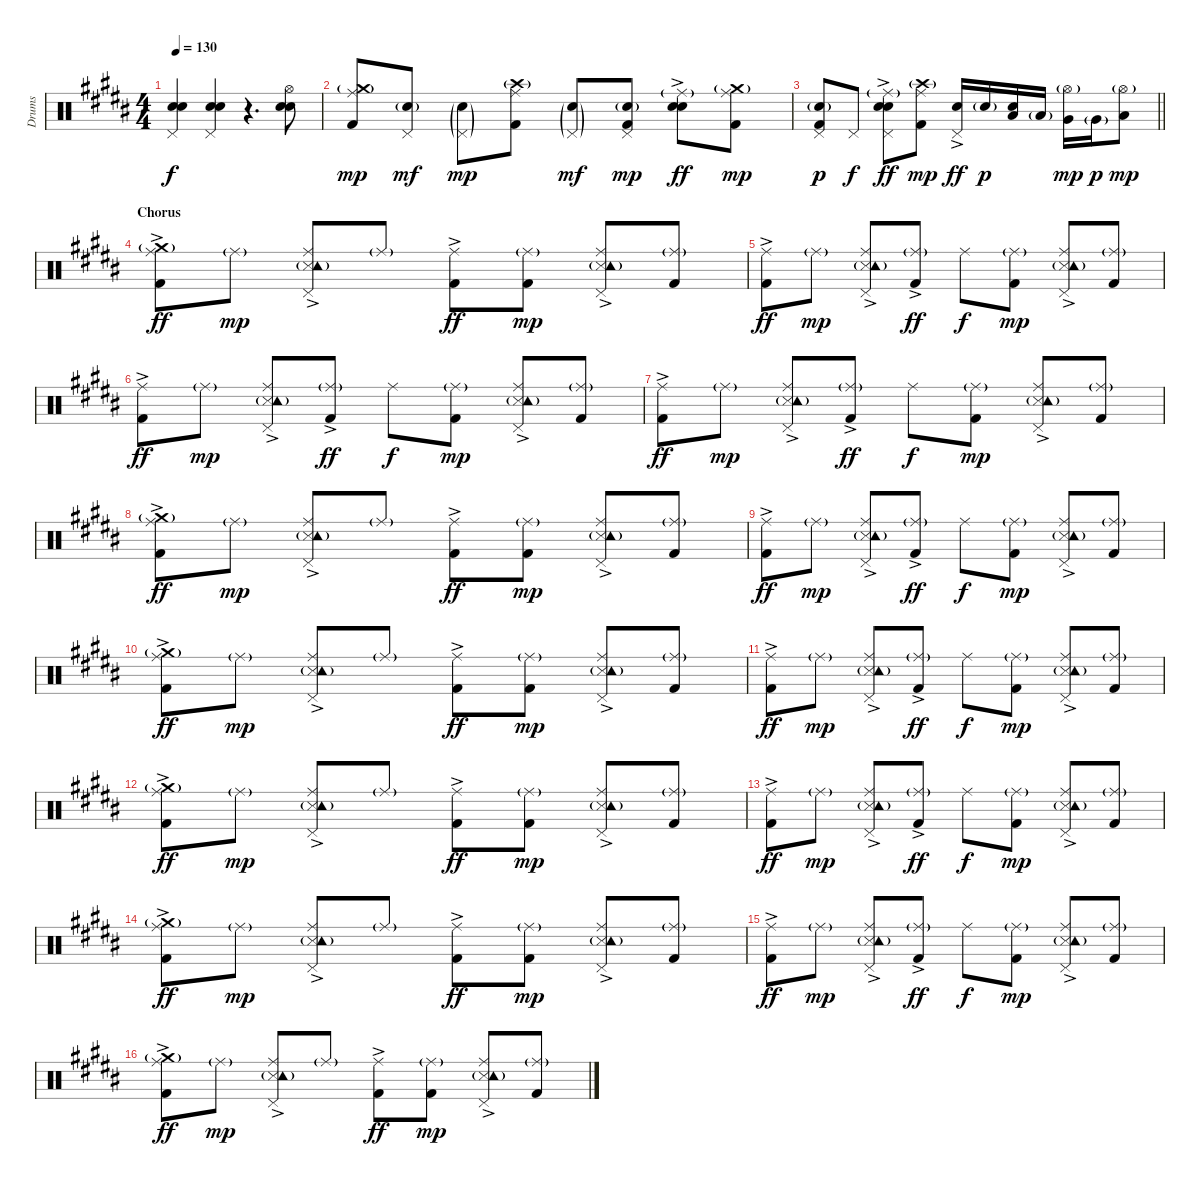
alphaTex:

\track ("Drums" "Drums") {instrument percussion}
\staff {score}
\articulation defaults
\ts (4 4)
\tempo 130
\clef neutral
\ks b
("Pedal Hi-Hat (hit)" "Electric Snare (hit)" "Snare (hit) 2").4{dy f} ("Pedal Hi-Hat (hit)" "Electric Snare (hit)" "Snare (hit) 2").4 r.4{d} ("Hi-Hat (open)" "Electric Snare (hit)" "Snare (hit) 2").8 |
("Ride (middle)" "Crash medium (hit)"{g} "Kick (hit) 2").8{dy mp} ("Pedal Hi-Hat (hit)" "Electric Snare (hit)"{g}).8{dy mf} ("Pedal Hi-Hat (hit)"{g} "Electric Snare (hit)"{g}).8{dy mp} ("Ride (middle)" "Crash high (hit)"{g} "Kick (hit) 2").8 ("Pedal Hi-Hat (hit)"{g} "Electric Snare (hit)"{g}).8{dy mf} ("Pedal Hi-Hat (hit)" "Electric Snare (hit)"{g} "Kick (hit) 2").8{dy mp} ("Ride (middle)"{g} "Electric Snare (hit)" "Snare (hit) 2"{ac}).8{dy ff} ("Ride (middle)" "Crash medium (hit)"{g} "Kick (hit) 2").8{dy mp} |
\barLineRight lightlight
("Pedal Hi-Hat (hit)" "Electric Snare (hit)"{g} "Kick (hit) 2").8{dy p} "Pedal Hi-Hat (hit)".8{dy f} ("Ride (middle)"{g} "Pedal Hi-Hat (hit)" "Electric Snare (hit)" "Snare (hit) 2"{ac}).8{dy ff} ("Ride (middle)" "Crash high (hit)"{g} "Kick (hit) 2").8{dy mp} ("Pedal Hi-Hat (hit)" "Electric Snare (hit)"{ac}).16{dy ff} "Electric Snare (hit)"{g}.16{dy p} ("Low Tom (hit)" "Electric Snare (hit)").16 "Low Tom (hit)"{g}.16 ("Hi-Hat (open)"{g} "Very Low Tom (hit)").16{dy mp} "Very Low Tom (hit)"{g}.16{dy p} ("Hi-Hat (open)"{g} "Low Floor Tom (hit)").8{dy mp} |
\section ("" "Chorus")
("Ride (middle)" "Crash medium (hit)"{g} "Kick (hit) 2"{ac}).8{dy ff} "Ride (middle)"{g}.8{dy mp} ("Ride (middle)" "Pedal Hi-Hat (hit)" "Snare (side stick) 3"{ac} "Tambourine (hit)"{g}).8 "Ride (middle)"{g}.8 ("Ride (middle)" "Kick (hit) 2"{ac}).8{dy ff} ("Ride (middle)"{g} "Kick (hit) 2").8{dy mp} ("Ride (middle)" "Pedal Hi-Hat (hit)" "Snare (side stick) 3"{ac} "Tambourine (hit)"{g}).8 ("Ride (middle)"{g} "Kick (hit) 2").8 |
("Ride (middle)" "Kick (hit) 2"{ac}).8{dy ff} "Ride (middle)"{g}.8{dy mp} ("Ride (middle)" "Pedal Hi-Hat (hit)" "Snare (side stick) 3"{ac} "Tambourine (hit)"{g}).8 ("Ride (middle)"{g} "Kick (hit) 2"{ac}).8{dy ff} "Ride (middle)".8{dy f} ("Ride (middle)"{g} "Kick (hit) 2").8{dy mp} ("Ride (middle)" "Pedal Hi-Hat (hit)" "Snare (side stick) 3"{ac} "Tambourine (hit)"{g}).8 ("Ride (middle)"{g} "Kick (hit) 2").8 |
("Ride (middle)" "Kick (hit) 2"{ac}).8{dy ff} "Ride (middle)"{g}.8{dy mp} ("Ride (middle)" "Pedal Hi-Hat (hit)" "Snare (side stick) 3"{ac} "Tambourine (hit)"{g}).8 ("Ride (middle)"{g} "Kick (hit) 2"{ac}).8{dy ff} "Ride (middle)".8{dy f} ("Ride (middle)"{g} "Kick (hit) 2").8{dy mp} ("Ride (middle)" "Pedal Hi-Hat (hit)" "Snare (side stick) 3"{ac} "Tambourine (hit)"{g}).8 ("Ride (middle)"{g} "Kick (hit) 2").8 |
("Ride (middle)" "Kick (hit) 2"{ac}).8{dy ff} "Ride (middle)"{g}.8{dy mp} ("Ride (middle)" "Pedal Hi-Hat (hit)" "Snare (side stick) 3"{ac} "Tambourine (hit)"{g}).8 ("Ride (middle)"{g} "Kick (hit) 2"{ac}).8{dy ff} "Ride (middle)".8{dy f} ("Ride (middle)"{g} "Kick (hit) 2").8{dy mp} ("Ride (middle)" "Pedal Hi-Hat (hit)" "Snare (side stick) 3"{ac} "Tambourine (hit)"{g}).8 ("Ride (middle)"{g} "Kick (hit) 2").8 |
("Ride (middle)" "Crash medium (hit)"{g} "Kick (hit) 2"{ac}).8{dy ff} "Ride (middle)"{g}.8{dy mp} ("Ride (middle)" "Pedal Hi-Hat (hit)" "Snare (side stick) 3"{ac} "Tambourine (hit)"{g}).8 "Ride (middle)"{g}.8 ("Ride (middle)" "Kick (hit) 2"{ac}).8{dy ff} ("Ride (middle)"{g} "Kick (hit) 2").8{dy mp} ("Ride (middle)" "Pedal Hi-Hat (hit)" "Snare (side stick) 3"{ac} "Tambourine (hit)"{g}).8 ("Ride (middle)"{g} "Kick (hit) 2").8 |
("Ride (middle)" "Kick (hit) 2"{ac}).8{dy ff} "Ride (middle)"{g}.8{dy mp} ("Ride (middle)" "Pedal Hi-Hat (hit)" "Snare (side stick) 3"{ac} "Tambourine (hit)"{g}).8 ("Ride (middle)"{g} "Kick (hit) 2"{ac}).8{dy ff} "Ride (middle)".8{dy f} ("Ride (middle)"{g} "Kick (hit) 2").8{dy mp} ("Ride (middle)" "Pedal Hi-Hat (hit)" "Snare (side stick) 3"{ac} "Tambourine (hit)"{g}).8 ("Ride (middle)"{g} "Kick (hit) 2").8 |
("Ride (middle)" "Crash medium (hit)"{g} "Kick (hit) 2"{ac}).8{dy ff} "Ride (middle)"{g}.8{dy mp} ("Ride (middle)" "Pedal Hi-Hat (hit)" "Snare (side stick) 3"{ac} "Tambourine (hit)"{g}).8 "Ride (middle)"{g}.8 ("Ride (middle)" "Kick (hit) 2"{ac}).8{dy ff} ("Ride (middle)"{g} "Kick (hit) 2").8{dy mp} ("Ride (middle)" "Pedal Hi-Hat (hit)" "Snare (side stick) 3"{ac} "Tambourine (hit)"{g}).8 ("Ride (middle)"{g} "Kick (hit) 2").8 |
("Ride (middle)" "Kick (hit) 2"{ac}).8{dy ff} "Ride (middle)"{g}.8{dy mp} ("Ride (middle)" "Pedal Hi-Hat (hit)" "Snare (side stick) 3"{ac} "Tambourine (hit)"{g}).8 ("Ride (middle)"{g} "Kick (hit) 2"{ac}).8{dy ff} "Ride (middle)".8{dy f} ("Ride (middle)"{g} "Kick (hit) 2").8{dy mp} ("Ride (middle)" "Pedal Hi-Hat (hit)" "Snare (side stick) 3"{ac} "Tambourine (hit)"{g}).8 ("Ride (middle)"{g} "Kick (hit) 2").8 |
("Ride (middle)" "Crash medium (hit)"{g} "Kick (hit) 2"{ac}).8{dy ff} "Ride (middle)"{g}.8{dy mp} ("Ride (middle)" "Pedal Hi-Hat (hit)" "Snare (side stick) 3"{ac} "Tambourine (hit)"{g}).8 "Ride (middle)"{g}.8 ("Ride (middle)" "Kick (hit) 2"{ac}).8{dy ff} ("Ride (middle)"{g} "Kick (hit) 2").8{dy mp} ("Ride (middle)" "Pedal Hi-Hat (hit)" "Snare (side stick) 3"{ac} "Tambourine (hit)"{g}).8 ("Ride (middle)"{g} "Kick (hit) 2").8 |
("Ride (middle)" "Kick (hit) 2"{ac}).8{dy ff} "Ride (middle)"{g}.8{dy mp} ("Ride (middle)" "Pedal Hi-Hat (hit)" "Snare (side stick) 3"{ac} "Tambourine (hit)"{g}).8 ("Ride (middle)"{g} "Kick (hit) 2"{ac}).8{dy ff} "Ride (middle)".8{dy f} ("Ride (middle)"{g} "Kick (hit) 2").8{dy mp} ("Ride (middle)" "Pedal Hi-Hat (hit)" "Snare (side stick) 3"{ac} "Tambourine (hit)"{g}).8 ("Ride (middle)"{g} "Kick (hit) 2").8 |
("Ride (middle)" "Crash medium (hit)"{g} "Kick (hit) 2"{ac}).8{dy ff} "Ride (middle)"{g}.8{dy mp} ("Ride (middle)" "Pedal Hi-Hat (hit)" "Snare (side stick) 3"{ac} "Tambourine (hit)"{g}).8 "Ride (middle)"{g}.8 ("Ride (middle)" "Kick (hit) 2"{ac}).8{dy ff} ("Ride (middle)"{g} "Kick (hit) 2").8{dy mp} ("Ride (middle)" "Pedal Hi-Hat (hit)" "Snare (side stick) 3"{ac} "Tambourine (hit)"{g}).8 ("Ride (middle)"{g} "Kick (hit) 2").8 |
("Ride (middle)" "Kick (hit) 2"{ac}).8{dy ff} "Ride (middle)"{g}.8{dy mp} ("Ride (middle)" "Pedal Hi-Hat (hit)" "Snare (side stick) 3"{ac} "Tambourine (hit)"{g}).8 ("Ride (middle)"{g} "Kick (hit) 2"{ac}).8{dy ff} "Ride (middle)".8{dy f} ("Ride (middle)"{g} "Kick (hit) 2").8{dy mp} ("Ride (middle)" "Pedal Hi-Hat (hit)" "Snare (side stick) 3"{ac} "Tambourine (hit)"{g}).8 ("Ride (middle)"{g} "Kick (hit) 2").8 |
("Ride (middle)" "Crash medium (hit)"{g} "Kick (hit) 2"{ac}).8{dy ff} "Ride (middle)"{g}.8{dy mp} ("Ride (middle)" "Pedal Hi-Hat (hit)" "Snare (side stick) 3"{ac} "Tambourine (hit)"{g}).8 "Ride (middle)"{g}.8 ("Ride (middle)" "Kick (hit) 2"{ac}).8{dy ff} ("Ride (middle)"{g} "Kick (hit) 2").8{dy mp} ("Ride (middle)" "Pedal Hi-Hat (hit)" "Snare (side stick) 3"{ac} "Tambourine (hit)"{g}).8 ("Ride (middle)"{g} "Kick (hit) 2").8
